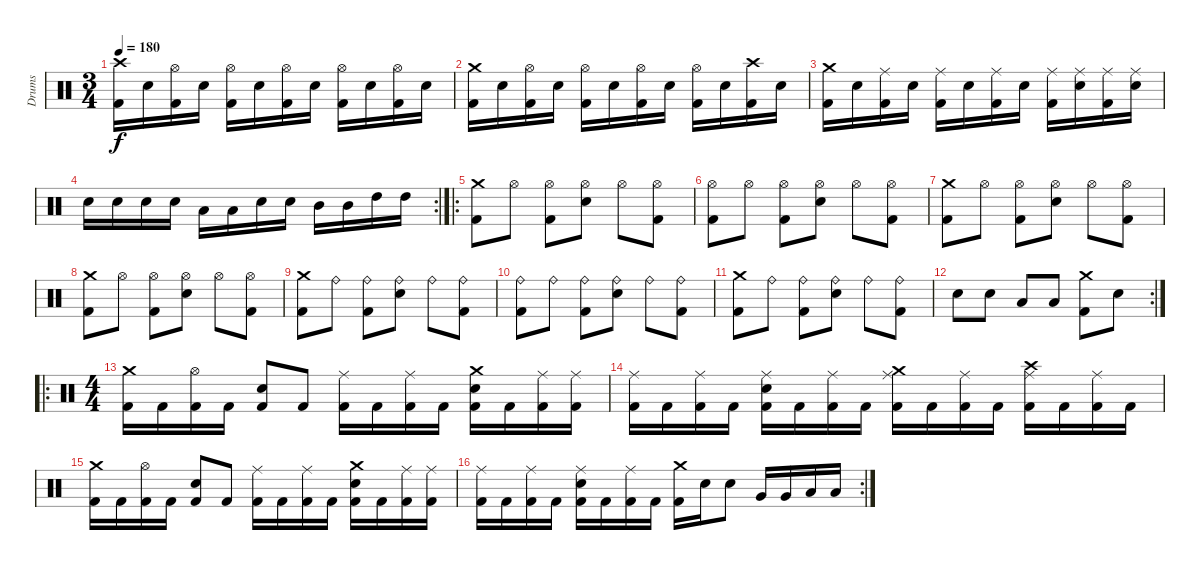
\track ("Drums" "Drums") {instrument percussion}
\staff {score}
\articulation defaults
\ts (3 4)
\tempo 180
\clef neutral
\ks c
("Kick (hit) 2" "Crash high (hit)").16{dy f} "Electric Snare (hit)".16 ("Kick (hit) 2" "Hi-Hat (open)").16 "Electric Snare (hit)".16 ("Kick (hit) 2" "Hi-Hat (open)").16 "Electric Snare (hit)".16 ("Kick (hit) 2" "Hi-Hat (open)").16 "Electric Snare (hit)".16 ("Kick (hit) 2" "Hi-Hat (open)").16 "Electric Snare (hit)".16 ("Kick (hit) 2" "Hi-Hat (open)").16 "Electric Snare (hit)".16 |
("Kick (hit) 2" "Crash medium (hit)").16 "Electric Snare (hit)".16 ("Kick (hit) 2" "Hi-Hat (open)").16 "Electric Snare (hit)".16 ("Kick (hit) 2" "Hi-Hat (open)").16 "Electric Snare (hit)".16 ("Kick (hit) 2" "Hi-Hat (open)").16 "Electric Snare (hit)".16 ("Kick (hit) 2" "Hi-Hat (open)").16 "Electric Snare (hit)".16 ("Kick (hit) 2" "Crash high (hit)").16 "Electric Snare (hit)".16 |
("Kick (hit) 2" "Crash medium (hit)").16 "Electric Snare (hit)".16 ("Kick (hit) 2" "Ride (middle)").16 "Electric Snare (hit)".16 ("Kick (hit) 2" "Ride (middle)").16 "Electric Snare (hit)".16 ("Kick (hit) 2" "Ride (middle)").16 "Electric Snare (hit)".16 ("Kick (hit) 2" "Ride (middle)").16 ("Electric Snare (hit)" "Ride (middle)").16 ("Kick (hit) 2" "Ride (middle)").16 ("Electric Snare (hit)" "Ride (middle)").16 |
\rc 2 "Electric Snare (hit)".16 "Electric Snare (hit)".16 "Electric Snare (hit)".16 "Electric Snare (hit)".16 "Low Tom (hit)".16 "Low Tom (hit)".16 "Electric Snare (hit)".16 "Electric Snare (hit)".16 "Mid Tom (hit)".16 "Mid Tom (hit)".16 "High Tom (hit)".16 "High Tom (hit)".16
|
\ro
("Kick (hit) 2" "Crash medium (hit)").8 "Hi-Hat (open)".8 ("Kick (hit) 2" "Hi-Hat (open)").8 ("Electric Snare (hit)" "Hi-Hat (open)").8 "Hi-Hat (open)".8 ("Kick (hit) 2" "Hi-Hat (open)").8 |
("Kick (hit) 2" "Hi-Hat (open)").8 "Hi-Hat (open)".8 ("Kick (hit) 2" "Hi-Hat (open)").8 ("Electric Snare (hit)" "Hi-Hat (open)").8 "Hi-Hat (open)".8 ("Kick (hit) 2" "Hi-Hat (open)").8 |
("Kick (hit) 2" "Crash medium (hit)").8 "Hi-Hat (open)".8 ("Kick (hit) 2" "Hi-Hat (open)").8 ("Electric Snare (hit)" "Hi-Hat (open)").8 "Hi-Hat (open)".8 ("Kick (hit) 2" "Hi-Hat (open)").8 |
("Kick (hit) 2" "Crash medium (hit)").8 "Hi-Hat (open)".8 ("Kick (hit) 2" "Hi-Hat (open)").8 ("Electric Snare (hit)" "Hi-Hat (open)").8 "Hi-Hat (open)".8 ("Kick (hit) 2" "Hi-Hat (open)").8 |
("Kick (hit) 2" "Crash medium (hit)").8 "Ride (bell)".8 ("Kick (hit) 2" "Ride (bell)").8 ("Electric Snare (hit)" "Ride (bell)").8 "Ride (bell)".8 ("Kick (hit) 2" "Ride (bell)").8 |
("Kick (hit) 2" "Ride (bell)").8 "Ride (bell)".8 ("Kick (hit) 2" "Ride (bell)").8 ("Electric Snare (hit)" "Ride (bell)").8 "Ride (bell)".8 ("Kick (hit) 2" "Ride (bell)").8 |
("Kick (hit) 2" "Crash medium (hit)").8 "Ride (bell)".8 ("Kick (hit) 2" "Ride (bell)").8 ("Electric Snare (hit)" "Ride (bell)").8 "Ride (bell)".8 ("Kick (hit) 2" "Ride (bell)").8 |
\rc 2 "Electric Snare (hit)".8 "Electric Snare (hit)".8 "Low Floor Tom (hit)".8 "Low Floor Tom (hit)".8
("Kick (hit) 2" "Crash medium (hit)").8 "Electric Snare (hit)".8 |
\ro
\ts (4 4)
("Kick (hit) 2" "Crash medium (hit)").16 "Kick (hit) 2".16 ("Kick (hit) 2" "Hi-Hat (open)").16 "Kick (hit) 2".16 ("Kick (hit) 2" "Electric Snare (hit)").8 "Kick (hit) 2".8 ("Kick (hit) 2" "Ride (middle)").16 "Kick (hit) 2".16 ("Kick (hit) 2" "Ride (middle)").16 "Kick (hit) 2".16 ("Kick (hit) 2" "Electric Snare (hit)" "Crash medium (hit)").16 "Kick (hit) 2".16 ("Kick (hit) 2" "Ride (middle)").16 ("Kick (hit) 2" "Ride (middle)").16 |
("Kick (hit) 2" "Ride (middle)").16 "Kick (hit) 2".16 ("Kick (hit) 2" "Ride (middle)").16 "Kick (hit) 2".16 ("Kick (hit) 2" "Electric Snare (hit)" "Ride (middle)").16 "Kick (hit) 2".16 ("Kick (hit) 2" "Ride (middle)").16 "Kick (hit) 2".16 ("Kick (hit) 2" "Ride (middle)" "Crash medium (hit)").16 "Kick (hit) 2".16 ("Kick (hit) 2" "Ride (middle)").16 "Kick (hit) 2".16 ("Kick (hit) 2" "Ride (middle)" "Crash high (hit)").16 "Kick (hit) 2".16 ("Kick (hit) 2" "Ride (middle)").16 "Kick (hit) 2".16 |
("Kick (hit) 2" "Crash medium (hit)").16 "Kick (hit) 2".16 ("Kick (hit) 2" "Hi-Hat (open)").16 "Kick (hit) 2".16 ("Kick (hit) 2" "Electric Snare (hit)").8 "Kick (hit) 2".8 ("Kick (hit) 2" "Ride (middle)").16 "Kick (hit) 2".16 ("Kick (hit) 2" "Ride (middle)").16 "Kick (hit) 2".16 ("Kick (hit) 2" "Electric Snare (hit)" "Crash medium (hit)").16 "Kick (hit) 2".16 ("Kick (hit) 2" "Ride (middle)").16 ("Kick (hit) 2" "Ride (middle)").16 |
\rc 2
("Kick (hit) 2" "Ride (middle)").16 "Kick (hit) 2".16 ("Kick (hit) 2" "Ride (middle)").16 "Kick (hit) 2".16 ("Kick (hit) 2" "Electric Snare (hit)" "Ride (middle)").16 "Kick (hit) 2".16 ("Kick (hit) 2" "Ride (middle)").16 "Kick (hit) 2".16 ("Kick (hit) 2" "Crash medium (hit)").16 "Electric Snare (hit)".16 "Electric Snare (hit)".8 "Very Low Tom (hit)".16 "Very Low Tom (hit)".16 "Low Tom (hit)".16 "Low Tom (hit)".16
